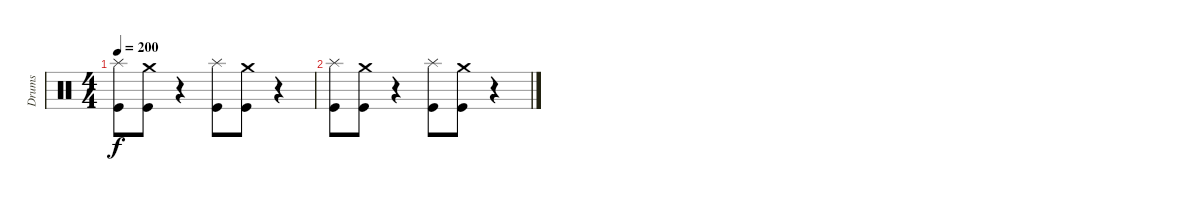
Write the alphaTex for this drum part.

\track ("Drums" "Drums") {instrument percussion}
\staff {score}
\articulation defaults
\ts (4 4)
\tempo 200
\clef neutral
\ks c
("Kick (hit)" "Splash (hit)").8{dy f} ("Kick (hit)" "Crash medium (hit)").8 r.4 ("Kick (hit)" "Splash (hit)").8 ("Kick (hit)" "Crash medium (hit)").8 r.4 |
("Kick (hit)" "Splash (hit)").8 ("Kick (hit)" "Crash medium (hit)").8 r.4 ("Kick (hit)" "Splash (hit)").8 ("Kick (hit)" "Crash medium (hit)").8 r.4
